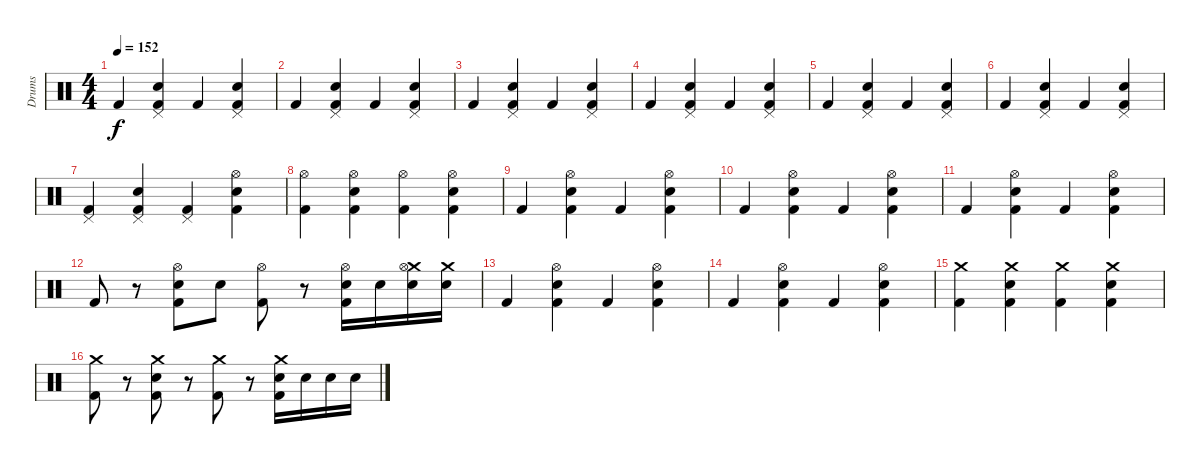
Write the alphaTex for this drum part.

\track ("Drums" "Drums") {instrument percussion}
\staff {score}
\articulation defaults
\ts (4 4)
\tempo 152
\clef neutral
\ks c "Kick (hit) 2".4{dy f}
("Snare (hit) 2" "Pedal Hi-Hat (hit)" "Kick (hit) 2").4 "Kick (hit) 2".4 ("Snare (hit) 2" "Pedal Hi-Hat (hit)" "Kick (hit) 2").4 |
"Kick (hit) 2".4 ("Snare (hit) 2" "Pedal Hi-Hat (hit)" "Kick (hit) 2").4 "Kick (hit) 2".4 ("Snare (hit) 2" "Pedal Hi-Hat (hit)" "Kick (hit) 2").4 |
"Kick (hit) 2".4 ("Snare (hit) 2" "Pedal Hi-Hat (hit)" "Kick (hit) 2").4 "Kick (hit) 2".4 ("Snare (hit) 2" "Pedal Hi-Hat (hit)" "Kick (hit) 2").4 |
"Kick (hit) 2".4 ("Snare (hit) 2" "Pedal Hi-Hat (hit)" "Kick (hit) 2").4 "Kick (hit) 2".4 ("Snare (hit) 2" "Pedal Hi-Hat (hit)" "Kick (hit) 2").4 |
"Kick (hit) 2".4 ("Snare (hit) 2" "Pedal Hi-Hat (hit)" "Kick (hit) 2").4 "Kick (hit) 2".4 ("Snare (hit) 2" "Pedal Hi-Hat (hit)" "Kick (hit) 2").4 |
"Kick (hit) 2".4 ("Snare (hit) 2" "Pedal Hi-Hat (hit)" "Kick (hit) 2").4 "Kick (hit) 2".4 ("Snare (hit) 2" "Pedal Hi-Hat (hit)" "Kick (hit) 2").4 |
("Pedal Hi-Hat (hit)" "Kick (hit) 2").4 ("Snare (hit) 2" "Pedal Hi-Hat (hit)" "Kick (hit) 2").4 ("Pedal Hi-Hat (hit)" "Kick (hit) 2").4 ("Snare (hit) 2" "Hi-Hat (open)" "Kick (hit) 2").4 |
("Hi-Hat (open)" "Kick (hit) 2").4 ("Snare (hit) 2" "Hi-Hat (open)" "Kick (hit) 2").4 ("Hi-Hat (open)" "Kick (hit) 2").4 ("Snare (hit) 2" "Hi-Hat (open)" "Kick (hit) 2").4 |
"Kick (hit) 2".4 ("Snare (hit) 2" "Hi-Hat (open)" "Kick (hit) 2").4 "Kick (hit) 2".4 ("Snare (hit) 2" "Hi-Hat (open)" "Kick (hit) 2").4 |
"Kick (hit) 2".4 ("Snare (hit) 2" "Hi-Hat (open)" "Kick (hit) 2").4 "Kick (hit) 2".4 ("Snare (hit) 2" "Hi-Hat (open)" "Kick (hit) 2").4 |
"Kick (hit) 2".4 ("Snare (hit) 2" "Hi-Hat (open)" "Kick (hit) 2").4 "Kick (hit) 2".4 ("Snare (hit) 2" "Hi-Hat (open)" "Kick (hit) 2").4 |
"Kick (hit) 2".8 r.8 ("Snare (hit) 2" "Hi-Hat (open)" "Kick (hit) 2").8 "Snare (hit) 2".8 ("Hi-Hat (open)" "Kick (hit) 2").8 r.8 ("Snare (hit) 2" "Hi-Hat (open)" "Kick (hit) 2").16 "Snare (hit) 2".16 ("Crash medium (hit)" "Snare (hit) 2" "Hi-Hat (open)").16 ("Crash medium (hit)" "Snare (hit) 2").16 |
"Kick (hit) 2".4 ("Snare (hit) 2" "Hi-Hat (open)" "Kick (hit) 2").4 "Kick (hit) 2".4 ("Snare (hit) 2" "Hi-Hat (open)" "Kick (hit) 2").4 |
"Kick (hit) 2".4 ("Snare (hit) 2" "Hi-Hat (open)" "Kick (hit) 2").4 "Kick (hit) 2".4 ("Snare (hit) 2" "Hi-Hat (open)" "Kick (hit) 2").4 |
("Crash medium (hit)" "Kick (hit) 2").4 ("Snare (hit) 2" "Crash medium (hit)" "Kick (hit) 2").4 ("Crash medium (hit)" "Kick (hit) 2").4 ("Snare (hit) 2" "Crash medium (hit)" "Kick (hit) 2").4 |
("Crash medium (hit)" "Kick (hit) 2").8 r.8 ("Snare (hit) 2" "Crash medium (hit)" "Kick (hit) 2").8 r.8 ("Crash medium (hit)" "Kick (hit) 2").8 r.8 ("Snare (hit) 2" "Crash medium (hit)" "Kick (hit) 2").16 "Snare (hit) 2".16 "Snare (hit) 2".16 "Snare (hit) 2".16
